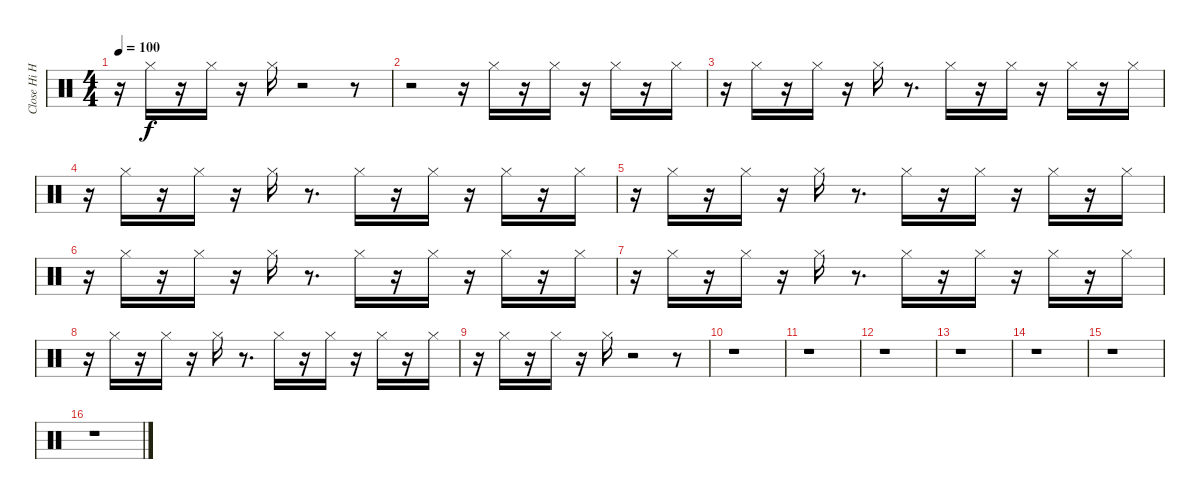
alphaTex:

\track ("Close Hi Hat" "Close Hi H") {instrument percussion}
\staff {score}
\articulation defaults
\ts (4 4)
\tempo 100
\clef neutral
\ks c
r.16{dy f} "Hi-Hat (closed)".16 r.16 "Hi-Hat (closed)".16 r.16 "Hi-Hat (closed)".16 r.2 r.8 |
r.2 r.16 "Hi-Hat (closed)".16 r.16 "Hi-Hat (closed)".16 r.16 "Hi-Hat (closed)".16 r.16 "Hi-Hat (closed)".16 |
r.16 "Hi-Hat (closed)".16 r.16 "Hi-Hat (closed)".16 r.16 "Hi-Hat (closed)".16 r.8{d} "Hi-Hat (closed)".16 r.16 "Hi-Hat (closed)".16 r.16 "Hi-Hat (closed)".16 r.16 "Hi-Hat (closed)".16 |
r.16 "Hi-Hat (closed)".16 r.16 "Hi-Hat (closed)".16 r.16 "Hi-Hat (closed)".16 r.8{d} "Hi-Hat (closed)".16 r.16 "Hi-Hat (closed)".16 r.16 "Hi-Hat (closed)".16 r.16 "Hi-Hat (closed)".16 |
r.16 "Hi-Hat (closed)".16 r.16 "Hi-Hat (closed)".16 r.16 "Hi-Hat (closed)".16 r.8{d} "Hi-Hat (closed)".16 r.16 "Hi-Hat (closed)".16 r.16 "Hi-Hat (closed)".16 r.16 "Hi-Hat (closed)".16 |
r.16 "Hi-Hat (closed)".16 r.16 "Hi-Hat (closed)".16 r.16 "Hi-Hat (closed)".16 r.8{d} "Hi-Hat (closed)".16 r.16 "Hi-Hat (closed)".16 r.16 "Hi-Hat (closed)".16 r.16 "Hi-Hat (closed)".16 |
r.16 "Hi-Hat (closed)".16 r.16 "Hi-Hat (closed)".16 r.16 "Hi-Hat (closed)".16 r.8{d} "Hi-Hat (closed)".16 r.16 "Hi-Hat (closed)".16 r.16 "Hi-Hat (closed)".16 r.16 "Hi-Hat (closed)".16 |
r.16 "Hi-Hat (closed)".16 r.16 "Hi-Hat (closed)".16 r.16 "Hi-Hat (closed)".16 r.8{d} "Hi-Hat (closed)".16 r.16 "Hi-Hat (closed)".16 r.16 "Hi-Hat (closed)".16 r.16 "Hi-Hat (closed)".16 |
r.16 "Hi-Hat (closed)".16 r.16 "Hi-Hat (closed)".16 r.16 "Hi-Hat (closed)".16 r.2 r.8 |
r.1 |
r.1 |
r.1 |
r.1 |
r.1 |
r.1 |
r.1
